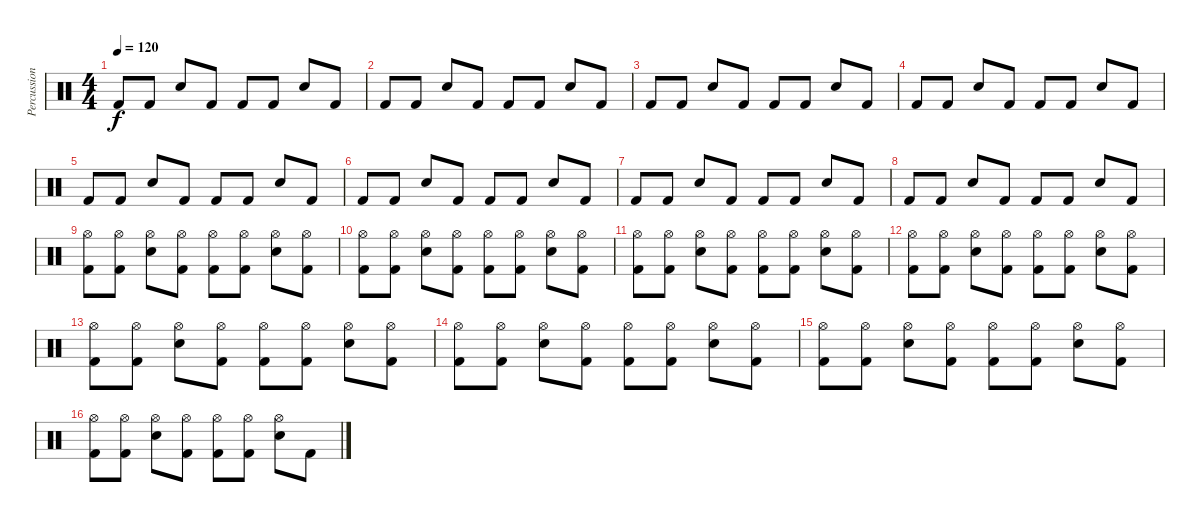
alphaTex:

\track ("Percussion" "Percussion") {instrument percussion}
\staff {score}
\articulation defaults
\ts (4 4)
\tempo 120
\clef neutral
\ks c "Kick (hit) 2".8{dy f} "Kick (hit) 2".8 "Electric Snare (hit)".8 "Kick (hit) 2".8 "Kick (hit) 2".8 "Kick (hit) 2".8 "Electric Snare (hit)".8 "Kick (hit) 2".8
|
"Kick (hit) 2".8 "Kick (hit) 2".8 "Electric Snare (hit)".8 "Kick (hit) 2".8 "Kick (hit) 2".8 "Kick (hit) 2".8 "Electric Snare (hit)".8 "Kick (hit) 2".8 |
"Kick (hit) 2".8 "Kick (hit) 2".8 "Electric Snare (hit)".8 "Kick (hit) 2".8 "Kick (hit) 2".8 "Kick (hit) 2".8 "Electric Snare (hit)".8 "Kick (hit) 2".8 |
"Kick (hit) 2".8 "Kick (hit) 2".8 "Electric Snare (hit)".8 "Kick (hit) 2".8 "Kick (hit) 2".8 "Kick (hit) 2".8 "Electric Snare (hit)".8 "Kick (hit) 2".8 |
"Kick (hit) 2".8 "Kick (hit) 2".8 "Electric Snare (hit)".8 "Kick (hit) 2".8 "Kick (hit) 2".8 "Kick (hit) 2".8 "Electric Snare (hit)".8 "Kick (hit) 2".8 |
"Kick (hit) 2".8 "Kick (hit) 2".8 "Electric Snare (hit)".8 "Kick (hit) 2".8 "Kick (hit) 2".8 "Kick (hit) 2".8 "Electric Snare (hit)".8 "Kick (hit) 2".8 |
"Kick (hit) 2".8 "Kick (hit) 2".8 "Electric Snare (hit)".8 "Kick (hit) 2".8 "Kick (hit) 2".8 "Kick (hit) 2".8 "Electric Snare (hit)".8 "Kick (hit) 2".8 |
"Kick (hit) 2".8 "Kick (hit) 2".8 "Electric Snare (hit)".8 "Kick (hit) 2".8 "Kick (hit) 2".8 "Kick (hit) 2".8 "Electric Snare (hit)".8 "Kick (hit) 2".8 |
("Hi-Hat (open)" "Kick (hit) 2").8 ("Hi-Hat (open)" "Kick (hit) 2").8 ("Hi-Hat (open)" "Electric Snare (hit)").8 ("Hi-Hat (open)" "Kick (hit) 2").8 ("Hi-Hat (open)" "Kick (hit) 2").8 ("Hi-Hat (open)" "Kick (hit) 2").8 ("Hi-Hat (open)" "Electric Snare (hit)").8 ("Hi-Hat (open)" "Kick (hit) 2").8 |
("Hi-Hat (open)" "Kick (hit) 2").8 ("Hi-Hat (open)" "Kick (hit) 2").8 ("Hi-Hat (open)" "Electric Snare (hit)").8 ("Hi-Hat (open)" "Kick (hit) 2").8 ("Hi-Hat (open)" "Kick (hit) 2").8 ("Hi-Hat (open)" "Kick (hit) 2").8 ("Hi-Hat (open)" "Electric Snare (hit)").8 ("Hi-Hat (open)" "Kick (hit) 2").8 |
("Hi-Hat (open)" "Kick (hit) 2").8 ("Hi-Hat (open)" "Kick (hit) 2").8 ("Hi-Hat (open)" "Electric Snare (hit)").8 ("Hi-Hat (open)" "Kick (hit) 2").8 ("Hi-Hat (open)" "Kick (hit) 2").8 ("Hi-Hat (open)" "Kick (hit) 2").8 ("Hi-Hat (open)" "Electric Snare (hit)").8 ("Hi-Hat (open)" "Kick (hit) 2").8 |
("Hi-Hat (open)" "Kick (hit) 2").8 ("Hi-Hat (open)" "Kick (hit) 2").8 ("Hi-Hat (open)" "Electric Snare (hit)").8 ("Hi-Hat (open)" "Kick (hit) 2").8 ("Hi-Hat (open)" "Kick (hit) 2").8 ("Hi-Hat (open)" "Kick (hit) 2").8 ("Hi-Hat (open)" "Electric Snare (hit)").8 ("Hi-Hat (open)" "Kick (hit) 2").8 |
("Hi-Hat (open)" "Kick (hit) 2").8 ("Hi-Hat (open)" "Kick (hit) 2").8 ("Hi-Hat (open)" "Electric Snare (hit)").8 ("Hi-Hat (open)" "Kick (hit) 2").8 ("Hi-Hat (open)" "Kick (hit) 2").8 ("Hi-Hat (open)" "Kick (hit) 2").8 ("Hi-Hat (open)" "Electric Snare (hit)").8 ("Hi-Hat (open)" "Kick (hit) 2").8 |
("Hi-Hat (open)" "Kick (hit) 2").8 ("Hi-Hat (open)" "Kick (hit) 2").8 ("Hi-Hat (open)" "Electric Snare (hit)").8 ("Hi-Hat (open)" "Kick (hit) 2").8 ("Hi-Hat (open)" "Kick (hit) 2").8 ("Hi-Hat (open)" "Kick (hit) 2").8 ("Hi-Hat (open)" "Electric Snare (hit)").8 ("Hi-Hat (open)" "Kick (hit) 2").8 |
("Hi-Hat (open)" "Kick (hit) 2").8 ("Hi-Hat (open)" "Kick (hit) 2").8 ("Hi-Hat (open)" "Electric Snare (hit)").8 ("Hi-Hat (open)" "Kick (hit) 2").8 ("Hi-Hat (open)" "Kick (hit) 2").8 ("Hi-Hat (open)" "Kick (hit) 2").8 ("Hi-Hat (open)" "Electric Snare (hit)").8 ("Hi-Hat (open)" "Kick (hit) 2").8 |
("Hi-Hat (open)" "Kick (hit) 2").8 ("Hi-Hat (open)" "Kick (hit) 2").8 ("Hi-Hat (open)" "Electric Snare (hit)").8 ("Hi-Hat (open)" "Kick (hit) 2").8 ("Hi-Hat (open)" "Kick (hit) 2").8 ("Hi-Hat (open)" "Kick (hit) 2").8 ("Hi-Hat (open)" "Electric Snare (hit)").8 "Kick (hit) 2".8
